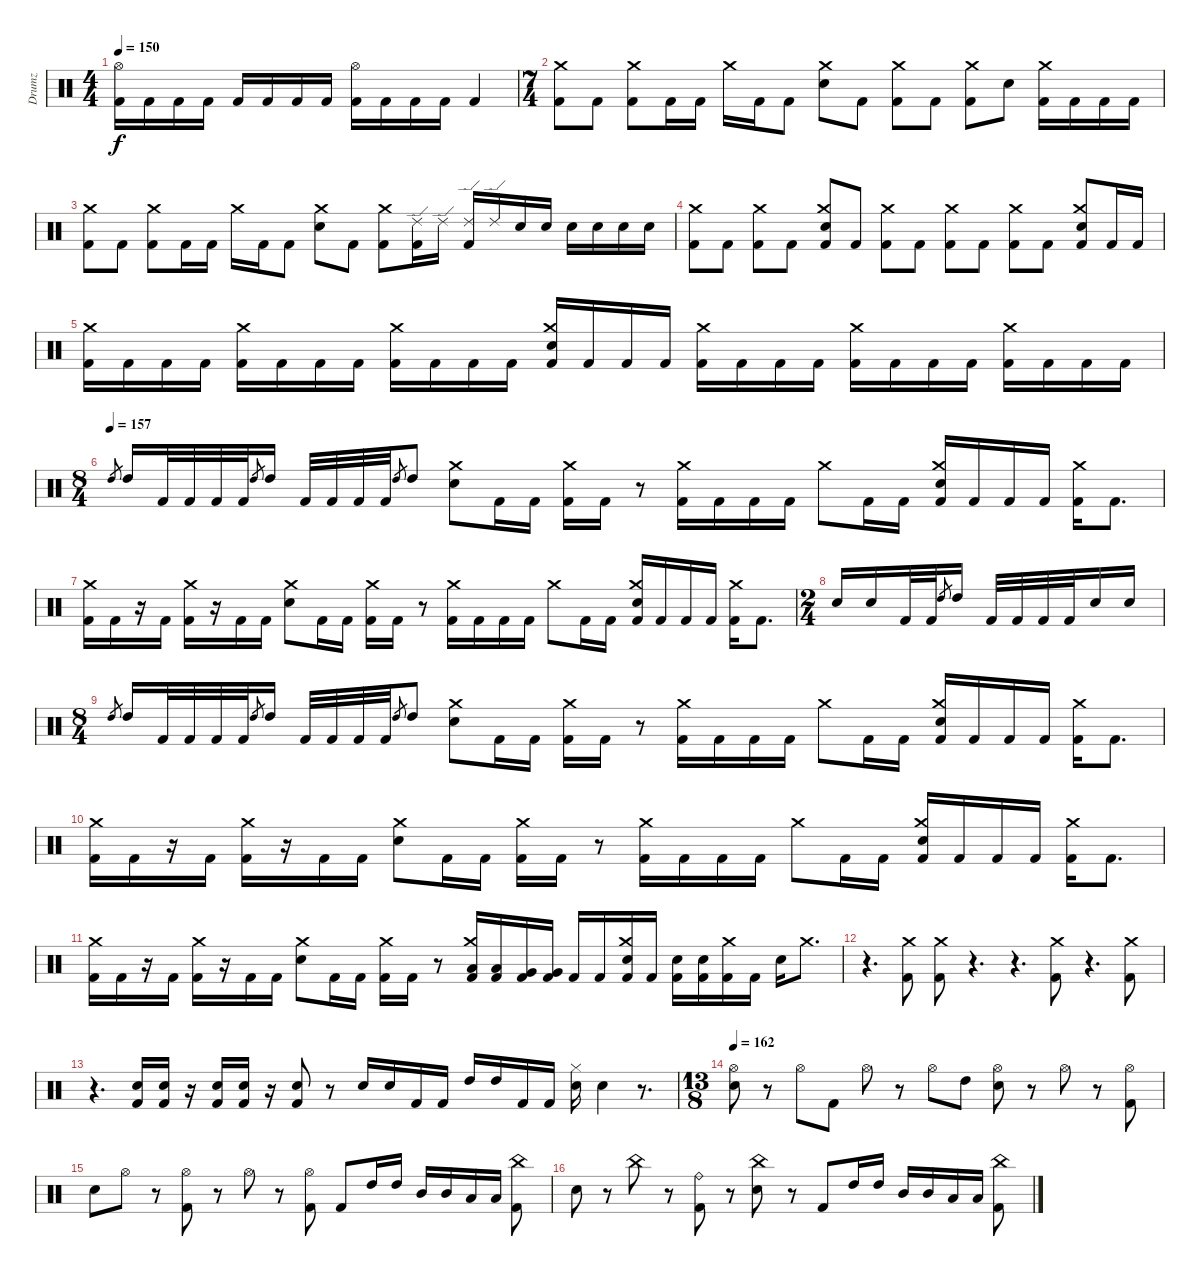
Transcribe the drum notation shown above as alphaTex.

\track ("Drumz" "Drumz") {instrument percussion}
\staff {score}
\articulation defaults
\ts (4 4)
\tempo 150
\clef neutral
\ks c
("Hi-Hat (open)" "Kick (hit) 2").16{dy f} "Kick (hit) 2".16 "Kick (hit) 2".16 "Kick (hit) 2".16 "Kick (hit) 2".16 "Kick (hit) 2".16 "Kick (hit) 2".16 "Kick (hit) 2".16 ("Hi-Hat (open)" "Kick (hit) 2").16 "Kick (hit) 2".16 "Kick (hit) 2".16 "Kick (hit) 2".16 "Kick (hit) 2".4 |
\ts (7 4)
("Crash medium (hit)" "Kick (hit) 2").8 "Kick (hit) 2".8 ("Crash medium (hit)" "Kick (hit) 2").8 "Kick (hit) 2".16 "Kick (hit) 2".16 "Crash medium (hit)".16 "Kick (hit) 2".16 "Kick (hit) 2".8 ("Crash medium (hit)" "Electric Snare (hit)").8 "Kick (hit) 2".8 ("Crash medium (hit)" "Kick (hit) 2").8 "Kick (hit) 2".8 ("Crash medium (hit)" "Kick (hit) 2").8 "Electric Snare (hit)".8 ("Crash medium (hit)" "Kick (hit) 2").16 "Kick (hit) 2".16 "Kick (hit) 2".16 "Kick (hit) 2".16 |
("Crash medium (hit)" "Kick (hit) 2").8 "Kick (hit) 2".8 ("Crash medium (hit)" "Kick (hit) 2").8 "Kick (hit) 2".16 "Kick (hit) 2".16 "Crash medium (hit)".16 "Kick (hit) 2".16 "Kick (hit) 2".8 ("Crash medium (hit)" "Electric Snare (hit)").8 "Kick (hit) 2".8 ("Crash medium (hit)" "Kick (hit) 2").8 ("Ride (edge) 2" "Kick (hit) 2").16 "Ride (edge) 2".16 ("Ride (edge) 2" "Kick (hit) 2").16 "Ride (edge) 2".16 "Electric Snare (hit)".16 "Electric Snare (hit)".16 "Electric Snare (hit)".16 "Electric Snare (hit)".16 "Electric Snare (hit)".16 "Electric Snare (hit)".16 |
("Crash medium (hit)" "Kick (hit) 2").8 "Kick (hit) 2".8 ("Crash medium (hit)" "Kick (hit) 2").8 "Kick (hit) 2".8 ("Crash medium (hit)" "Electric Snare (hit)" "Kick (hit) 2").8 "Kick (hit) 2".8 ("Crash medium (hit)" "Kick (hit) 2").8 "Kick (hit) 2".8 ("Crash medium (hit)" "Kick (hit) 2").8 "Kick (hit) 2".8 ("Crash medium (hit)" "Kick (hit) 2").8 "Kick (hit) 2".8 ("Crash medium (hit)" "Electric Snare (hit)" "Kick (hit) 2").8 "Kick (hit) 2".16 "Kick (hit) 2".16 |
("Crash medium (hit)" "Kick (hit) 2").16 "Kick (hit) 2".16 "Kick (hit) 2".16 "Kick (hit) 2".16 ("Crash medium (hit)" "Kick (hit) 2").16 "Kick (hit) 2".16 "Kick (hit) 2".16 "Kick (hit) 2".16 ("Crash medium (hit)" "Kick (hit) 2").16 "Kick (hit) 2".16 "Kick (hit) 2".16 "Kick (hit) 2".16 ("Crash medium (hit)" "Electric Snare (hit)" "Kick (hit) 2").16 "Kick (hit) 2".16 "Kick (hit) 2".16 "Kick (hit) 2".16 ("Crash medium (hit)" "Kick (hit) 2").16 "Kick (hit) 2".16 "Kick (hit) 2".16 "Kick (hit) 2".16 ("Crash medium (hit)" "Kick (hit) 2").16 "Kick (hit) 2".16 "Kick (hit) 2".16 "Kick (hit) 2".16 ("Crash medium (hit)" "Kick (hit) 2").16 "Kick (hit) 2".16 "Kick (hit) 2".16 "Kick (hit) 2".16 |
\ts (8 4)
\tempo (157)
"High Tom (hit)".8{gr} "High Tom (hit)".16 "Kick (hit) 2".32 "Kick (hit) 2".32 "Kick (hit) 2".32 "Kick (hit) 2".32 "High Tom (hit)".8{gr} "High Tom (hit)".16 "Kick (hit) 2".32 "Kick (hit) 2".32 "Kick (hit) 2".32 "Kick (hit) 2".32 "High Tom (hit)".8{gr} "High Tom (hit)".8 ("Crash medium (hit)" "Electric Snare (hit)").8 "Kick (hit) 2".16 "Kick (hit) 2".16 ("Crash medium (hit)" "Kick (hit) 2").16 "Kick (hit) 2".16 r.8 ("Crash medium (hit)" "Kick (hit) 2").16 "Kick (hit) 2".16 "Kick (hit) 2".16 "Kick (hit) 2".16 "Crash medium (hit)".8 "Kick (hit) 2".16 "Kick (hit) 2".16 ("Crash medium (hit)" "Electric Snare (hit)" "Kick (hit) 2").16 "Kick (hit) 2".16 "Kick (hit) 2".16 "Kick (hit) 2".16 ("Crash medium (hit)" "Kick (hit) 2").16 "Kick (hit) 2".8{d} |
("Crash medium (hit)" "Kick (hit) 2").16 "Kick (hit) 2".16 r.16 "Kick (hit) 2".16 ("Crash medium (hit)" "Kick (hit) 2").16 r.16 "Kick (hit) 2".16 "Kick (hit) 2".16 ("Crash medium (hit)" "Electric Snare (hit)").8 "Kick (hit) 2".16 "Kick (hit) 2".16 ("Crash medium (hit)" "Kick (hit) 2").16 "Kick (hit) 2".16 r.8 ("Crash medium (hit)" "Kick (hit) 2").16 "Kick (hit) 2".16 "Kick (hit) 2".16 "Kick (hit) 2".16 "Crash medium (hit)".8 "Kick (hit) 2".16 "Kick (hit) 2".16 ("Crash medium (hit)" "Electric Snare (hit)" "Kick (hit) 2").16 "Kick (hit) 2".16 "Kick (hit) 2".16 "Kick (hit) 2".16 ("Crash medium (hit)" "Kick (hit) 2").16 "Kick (hit) 2".8{d} |
\ts (2 4)
"Electric Snare (hit)".16 "Electric Snare (hit)".16 "Kick (hit) 2".32 "Kick (hit) 2".32 "High Tom (hit)".8{gr} "High Tom (hit)".16 "Kick (hit) 2".32 "Kick (hit) 2".32 "Kick (hit) 2".32 "Kick (hit) 2".32 "Electric Snare (hit)".16 "Electric Snare (hit)".16 |
\ts (8 4)
"High Tom (hit)".8{gr} "High Tom (hit)".16 "Kick (hit) 2".32 "Kick (hit) 2".32 "Kick (hit) 2".32 "Kick (hit) 2".32 "High Tom (hit)".8{gr} "High Tom (hit)".16 "Kick (hit) 2".32 "Kick (hit) 2".32 "Kick (hit) 2".32 "Kick (hit) 2".32 "High Tom (hit)".8{gr} "High Tom (hit)".8 ("Crash medium (hit)" "Electric Snare (hit)").8 "Kick (hit) 2".16 "Kick (hit) 2".16 ("Crash medium (hit)" "Kick (hit) 2").16 "Kick (hit) 2".16 r.8 ("Crash medium (hit)" "Kick (hit) 2").16 "Kick (hit) 2".16 "Kick (hit) 2".16 "Kick (hit) 2".16 "Crash medium (hit)".8 "Kick (hit) 2".16 "Kick (hit) 2".16 ("Crash medium (hit)" "Electric Snare (hit)" "Kick (hit) 2").16 "Kick (hit) 2".16 "Kick (hit) 2".16 "Kick (hit) 2".16 ("Crash medium (hit)" "Kick (hit) 2").16 "Kick (hit) 2".8{d} |
("Crash medium (hit)" "Kick (hit) 2").16 "Kick (hit) 2".16 r.16 "Kick (hit) 2".16 ("Crash medium (hit)" "Kick (hit) 2").16 r.16 "Kick (hit) 2".16 "Kick (hit) 2".16 ("Crash medium (hit)" "Electric Snare (hit)").8 "Kick (hit) 2".16 "Kick (hit) 2".16 ("Crash medium (hit)" "Kick (hit) 2").16 "Kick (hit) 2".16 r.8 ("Crash medium (hit)" "Kick (hit) 2").16 "Kick (hit) 2".16 "Kick (hit) 2".16 "Kick (hit) 2".16 "Crash medium (hit)".8 "Kick (hit) 2".16 "Kick (hit) 2".16 ("Crash medium (hit)" "Electric Snare (hit)" "Kick (hit) 2").16 "Kick (hit) 2".16 "Kick (hit) 2".16 "Kick (hit) 2".16 ("Crash medium (hit)" "Kick (hit) 2").16 "Kick (hit) 2".8{d} |
("Crash medium (hit)" "Kick (hit) 2").16 "Kick (hit) 2".16 r.16 "Kick (hit) 2".16 ("Crash medium (hit)" "Kick (hit) 2").16 r.16 "Kick (hit) 2".16 "Kick (hit) 2".16 ("Crash medium (hit)" "Electric Snare (hit)").8 "Kick (hit) 2".16 "Kick (hit) 2".16 ("Crash medium (hit)" "Kick (hit) 2").16 "Kick (hit) 2".16 r.8 ("Crash medium (hit)" "Low Tom (hit)" "Kick (hit) 2").16 ("Low Tom (hit)" "Kick (hit) 2").16 ("Very Low Tom (hit)" "Kick (hit) 2").16 ("Very Low Tom (hit)" "Kick (hit) 2").16 "Kick (hit) 2".16 "Kick (hit) 2".16 ("Crash medium (hit)" "Electric Snare (hit)" "Kick (hit) 2").16 "Kick (hit) 2".16 ("Electric Snare (hit)" "Kick (hit) 2").16 ("Electric Snare (hit)" "Kick (hit) 2").16 ("Crash medium (hit)" "Kick (hit) 2").16 "Kick (hit) 2".16 "Electric Snare (hit)".16 "Crash medium (hit)".8{d} |
r.4{d} ("Crash medium (hit)" "Kick (hit) 2").8 ("Crash medium (hit)" "Kick (hit) 2").8 r.4{d} r.4{d} ("Crash medium (hit)" "Kick (hit) 2").8 r.4{d} ("Crash medium (hit)" "Kick (hit) 2").8 |
r.4{d} ("Electric Snare (hit)" "Kick (hit) 2").16 ("Electric Snare (hit)" "Kick (hit) 2").16 r.16 ("Electric Snare (hit)" "Kick (hit) 2").16 ("Electric Snare (hit)" "Kick (hit) 2").16 r.16 ("Electric Snare (hit)" "Kick (hit) 2").8 r.8 "Electric Snare (hit)".16 "Electric Snare (hit)".16 "Kick (hit) 2".16 "Kick (hit) 2".16 "High Tom (hit)".16 "High Tom (hit)".16 "Kick (hit) 2".16 "Kick (hit) 2".16 ("Hi-Hat (closed)" "Electric Snare (hit)").16 "Electric Snare (hit)".4 r.8{d} |
\ts (13 8)
\tempo 162
("Hi-Hat (open)" "Electric Snare (hit)").8 r.8 "Hi-Hat (open)".8 "Kick (hit) 2".8 "Hi-Hat (open)".8 r.8 "Hi-Hat (open)".8 "High Tom (hit)".8 ("Hi-Hat (open)" "Electric Snare (hit)").8 r.8 "Hi-Hat (open)".8 r.8 ("Hi-Hat (open)" "Kick (hit) 2").8 |
"Electric Snare (hit)".8 "Hi-Hat (open)".8 r.8 ("Hi-Hat (open)" "Kick (hit) 2").8 r.8 "Hi-Hat (open)".8 r.8 ("Hi-Hat (open)" "Kick (hit) 2").8 "Kick (hit) 2".8 "High Tom (hit)".16 "High Tom (hit)".16 "Mid Tom (hit)".16 "Mid Tom (hit)".16 "Low Tom (hit)".16 "Low Tom (hit)".16 ("China (hit)" "Kick (hit) 2").8 |
"Electric Snare (hit)".8 r.8 "China (hit)".8 r.8 ("Ride (bell)" "Kick (hit) 2").8 r.8 ("China (hit)" "Electric Snare (hit)").8 r.8 "Kick (hit) 2".8 "High Tom (hit)".16 "High Tom (hit)".16 "Mid Tom (hit)".16 "Mid Tom (hit)".16 "Low Tom (hit)".16 "Low Tom (hit)".16 ("China (hit)" "Kick (hit) 2").8
